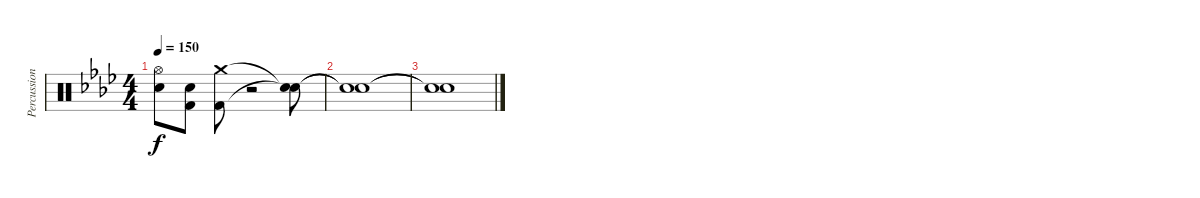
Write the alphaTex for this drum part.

\track ("Percussion" "Percussion") {instrument percussion}
\staff {score}
\articulation defaults
\ts (4 4)
\tempo 150
\clef neutral
\ks ab
("Hi-Hat (open)" "Electric Snare (hit)").8{dy f} ("Electric Snare (hit)" "Kick (hit) 2").8 ("Crash medium (hit)" "Kick (hit) 2").8 r.2 ("Snare (hit)"{t} "Snare (hit)"{t}).8 |
("Snare (hit)"{t} "Snare (hit)"{t}).1 |
("Snare (hit)"{t} "Snare (hit)"{t}).1
